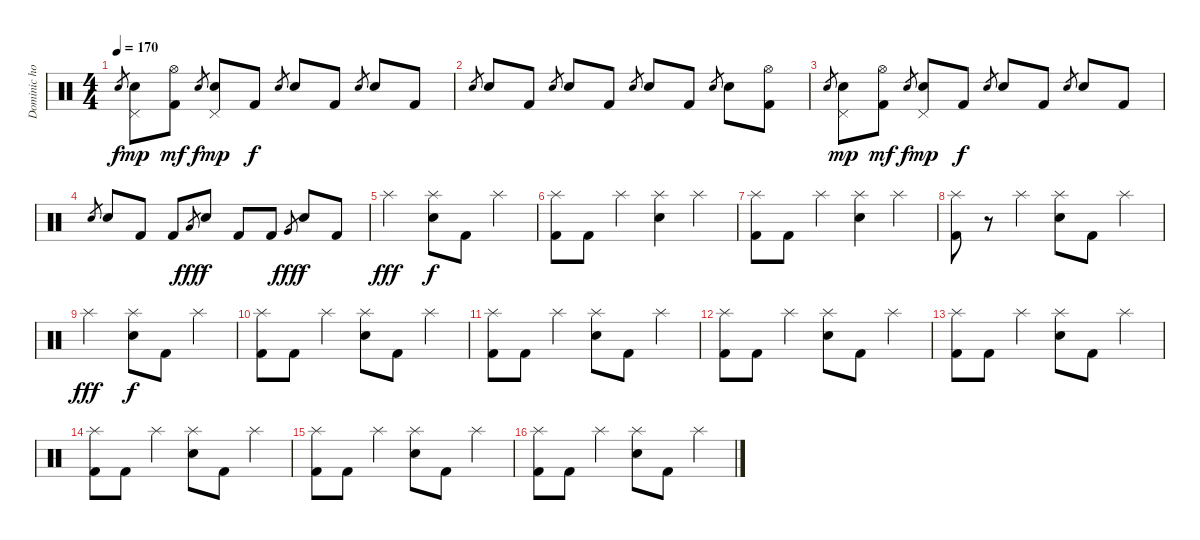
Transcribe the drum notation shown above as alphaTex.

\track ("Dominic howard" "Dominic ho") {instrument percussion}
\staff {score}
\articulation defaults
\ts (4 4)
\tempo 170
\clef neutral
\ks c "Electric Snare (hit)".8{gr dy f}
("Pedal Hi-Hat (hit)" "Electric Snare (hit)").8{dy mp} ("Hi-Hat (open)" "Kick (hit) 2").8{dy mf} "Electric Snare (hit)".8{gr dy f} ("Pedal Hi-Hat (hit)" "Electric Snare (hit)").8{dy mp} "Kick (hit) 2".8{dy f} "Electric Snare (hit)".8{gr} "Electric Snare (hit)".8 "Kick (hit) 2".8 "Electric Snare (hit)".8{gr} "Electric Snare (hit)".8 "Kick (hit) 2".8 |
"Electric Snare (hit)".8{gr} "Electric Snare (hit)".8 "Kick (hit) 2".8 "Electric Snare (hit)".8{gr} "Electric Snare (hit)".8 "Kick (hit) 2".8 "Electric Snare (hit)".8{gr} "Electric Snare (hit)".8 "Kick (hit) 2".8 "Electric Snare (hit)".8{gr} "Electric Snare (hit)".8 ("Hi-Hat (open)" "Kick (hit) 2").8 |
"Electric Snare (hit)".8{gr} ("Pedal Hi-Hat (hit)" "Electric Snare (hit)").8{dy mp} ("Hi-Hat (open)" "Kick (hit) 2").8{dy mf} "Electric Snare (hit)".8{gr dy f} ("Pedal Hi-Hat (hit)" "Electric Snare (hit)").8{dy mp} "Kick (hit) 2".8{dy f} "Electric Snare (hit)".8{gr} "Electric Snare (hit)".8 "Kick (hit) 2".8 "Electric Snare (hit)".8{gr} "Electric Snare (hit)".8 "Kick (hit) 2".8 |
"Electric Snare (hit)".8{gr} "Electric Snare (hit)".8 "Kick (hit) 2".8 "Kick (hit) 2".8 "Low Tom (hit)".8{gr dy fff} "Electric Snare (hit)".8{dy f} "Kick (hit) 2".8 "Kick (hit) 2".8 "Very Low Tom (hit)".8{gr dy fff} "Electric Snare (hit)".8{dy f} "Kick (hit) 2".8 |
"Splash (hit)".2{dy fff} ("Splash (hit)" "Electric Snare (hit)").8{dy f} "Kick (hit) 2".8 "Splash (hit)".4 |
("Splash (hit)" "Kick (hit) 2").8 "Kick (hit) 2".8 "Splash (hit)".4 ("Splash (hit)" "Electric Snare (hit)").4 "Splash (hit)".4 |
("Splash (hit)" "Kick (hit) 2").8 "Kick (hit) 2".8 "Splash (hit)".4 ("Splash (hit)" "Electric Snare (hit)").4 "Splash (hit)".4 |
("Splash (hit)" "Kick (hit) 2").8 r.8 "Splash (hit)".4 ("Splash (hit)" "Electric Snare (hit)").8 "Kick (hit) 2".8 "Splash (hit)".4 |
"Splash (hit)".2{dy fff} ("Splash (hit)" "Electric Snare (hit)").8{dy f} "Kick (hit) 2".8 "Splash (hit)".4 |
("Splash (hit)" "Kick (hit) 2").8 "Kick (hit) 2".8 "Splash (hit)".4 ("Splash (hit)" "Electric Snare (hit)").8 "Kick (hit) 2".8 "Splash (hit)".4 |
("Splash (hit)" "Kick (hit) 2").8 "Kick (hit) 2".8 "Splash (hit)".4 ("Splash (hit)" "Electric Snare (hit)").8 "Kick (hit) 2".8 "Splash (hit)".4 |
("Splash (hit)" "Kick (hit) 2").8 "Kick (hit) 2".8 "Splash (hit)".4 ("Splash (hit)" "Electric Snare (hit)").8 "Kick (hit) 2".8 "Splash (hit)".4 |
("Splash (hit)" "Kick (hit) 2").8 "Kick (hit) 2".8 "Splash (hit)".4 ("Splash (hit)" "Electric Snare (hit)").8 "Kick (hit) 2".8 "Splash (hit)".4 |
("Splash (hit)" "Kick (hit) 2").8 "Kick (hit) 2".8 "Splash (hit)".4 ("Splash (hit)" "Electric Snare (hit)").8 "Kick (hit) 2".8 "Splash (hit)".4 |
("Splash (hit)" "Kick (hit) 2").8 "Kick (hit) 2".8 "Splash (hit)".4 ("Splash (hit)" "Electric Snare (hit)").8 "Kick (hit) 2".8 "Splash (hit)".4 |
("Splash (hit)" "Kick (hit) 2").8 "Kick (hit) 2".8 "Splash (hit)".4 ("Splash (hit)" "Electric Snare (hit)").8 "Kick (hit) 2".8 "Splash (hit)".4
